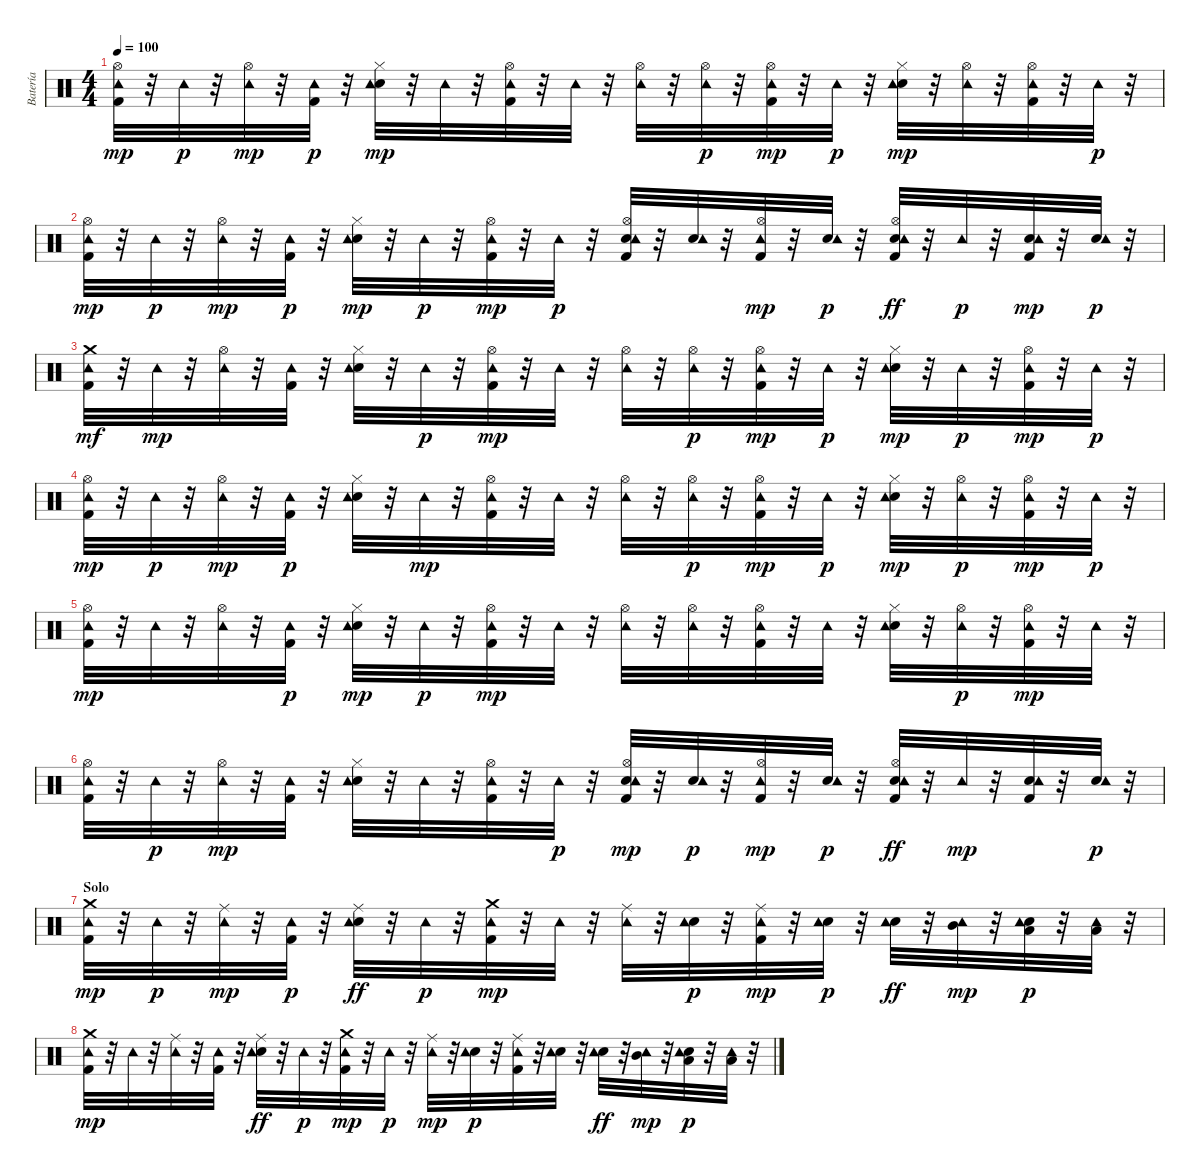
\track ("Batería" "Batería") {instrument percussion}
\staff {score}
\articulation defaults
\ts (4 4)
\tempo 100
\clef neutral
\ks c
("Kick (hit) 2" "Hi-Hat (open)" "Tambourine (hit)").32{dy mp} r.32 "Tambourine (hit)".32{dy p} r.32 ("Hi-Hat (open)" "Tambourine (hit)").32{dy mp} r.32 ("Kick (hit) 2" "Tambourine (hit)").32{dy p} r.32 ("Electric Snare (hit)" "Hi-Hat (closed)" "Tambourine (hit)").32{dy mp} r.32 "Tambourine (hit)".32 r.32 ("Kick (hit) 2" "Hi-Hat (open)" "Tambourine (hit)").32 r.32 "Tambourine (hit)".32 r.32 ("Hi-Hat (open)" "Tambourine (hit)").32 r.32 ("Hi-Hat (open)" "Tambourine (hit)").32{dy p} r.32 ("Kick (hit) 2" "Hi-Hat (open)" "Tambourine (hit)").32{dy mp} r.32 "Tambourine (hit)".32{dy p} r.32 ("Electric Snare (hit)" "Hi-Hat (closed)" "Tambourine (hit)").32{dy mp} r.32 ("Hi-Hat (open)" "Tambourine (hit)").32 r.32 ("Kick (hit) 2" "Hi-Hat (open)" "Tambourine (hit)").32 r.32 "Tambourine (hit)".32{dy p} r.32 |
("Kick (hit) 2" "Hi-Hat (open)" "Tambourine (hit)").32{dy mp} r.32 "Tambourine (hit)".32{dy p} r.32 ("Hi-Hat (open)" "Tambourine (hit)").32{dy mp} r.32 ("Kick (hit) 2" "Tambourine (hit)").32{dy p} r.32 ("Electric Snare (hit)" "Hi-Hat (closed)" "Tambourine (hit)").32{dy mp} r.32 "Tambourine (hit)".32{dy p} r.32 ("Kick (hit) 2" "Hi-Hat (open)" "Tambourine (hit)").32{dy mp} r.32 "Tambourine (hit)".32{dy p} r.32 ("Kick (hit) 2" "Electric Snare (hit)" "Hi-Hat (open)" "Tambourine (hit)").32 r.32 ("Electric Snare (hit)" "Tambourine (hit)").32 r.32 ("Kick (hit) 2" "Hi-Hat (open)" "Tambourine (hit)").32{dy mp} r.32 ("Electric Snare (hit)" "Tambourine (hit)").32{dy p} r.32 ("Kick (hit) 2" "Electric Snare (hit)" "Hi-Hat (open)" "Tambourine (hit)").32{dy ff} r.32 "Tambourine (hit)".32{dy p} r.32 ("Kick (hit) 2" "Electric Snare (hit)" "Tambourine (hit)").32{dy mp} r.32 ("Electric Snare (hit)" "Tambourine (hit)").32{dy p} r.32 |
("Kick (hit) 2" "Tambourine (hit)" "Crash medium (hit)").32{dy mf} r.32 "Tambourine (hit)".32{dy mp} r.32 ("Hi-Hat (open)" "Tambourine (hit)").32 r.32 ("Kick (hit) 2" "Tambourine (hit)").32 r.32 ("Electric Snare (hit)" "Hi-Hat (closed)" "Tambourine (hit)").32 r.32 "Tambourine (hit)".32{dy p} r.32 ("Kick (hit) 2" "Hi-Hat (open)" "Tambourine (hit)").32{dy mp} r.32 "Tambourine (hit)".32 r.32 ("Hi-Hat (open)" "Tambourine (hit)").32 r.32 ("Hi-Hat (open)" "Tambourine (hit)").32{dy p} r.32 ("Kick (hit) 2" "Hi-Hat (open)" "Tambourine (hit)").32{dy mp} r.32 "Tambourine (hit)".32{dy p} r.32 ("Electric Snare (hit)" "Hi-Hat (closed)" "Tambourine (hit)").32{dy mp} r.32 "Tambourine (hit)".32{dy p} r.32 ("Kick (hit) 2" "Hi-Hat (open)" "Tambourine (hit)").32{dy mp} r.32 "Tambourine (hit)".32{dy p} r.32 |
("Kick (hit) 2" "Hi-Hat (open)" "Tambourine (hit)").32{dy mp} r.32 "Tambourine (hit)".32{dy p} r.32 ("Hi-Hat (open)" "Tambourine (hit)").32{dy mp} r.32 ("Kick (hit) 2" "Tambourine (hit)").32{dy p} r.32 ("Electric Snare (hit)" "Hi-Hat (closed)" "Tambourine (hit)").32 r.32 "Tambourine (hit)".32{dy mp} r.32 ("Kick (hit) 2" "Hi-Hat (open)" "Tambourine (hit)").32 r.32 "Tambourine (hit)".32 r.32 ("Hi-Hat (open)" "Tambourine (hit)").32 r.32 ("Hi-Hat (open)" "Tambourine (hit)").32{dy p} r.32 ("Kick (hit) 2" "Hi-Hat (open)" "Tambourine (hit)").32{dy mp} r.32 "Tambourine (hit)".32{dy p} r.32 ("Electric Snare (hit)" "Hi-Hat (closed)" "Tambourine (hit)").32{dy mp} r.32 ("Hi-Hat (open)" "Tambourine (hit)").32{dy p} r.32 ("Kick (hit) 2" "Hi-Hat (open)" "Tambourine (hit)").32{dy mp} r.32 "Tambourine (hit)".32{dy p} r.32 |
("Kick (hit) 2" "Hi-Hat (open)" "Tambourine (hit)").32{dy mp} r.32 "Tambourine (hit)".32 r.32 ("Hi-Hat (open)" "Tambourine (hit)").32 r.32 ("Kick (hit) 2" "Tambourine (hit)").32{dy p} r.32 ("Electric Snare (hit)" "Hi-Hat (closed)" "Tambourine (hit)").32{dy mp} r.32 "Tambourine (hit)".32{dy p} r.32 ("Kick (hit) 2" "Hi-Hat (open)" "Tambourine (hit)").32{dy mp} r.32 "Tambourine (hit)".32 r.32 ("Hi-Hat (open)" "Tambourine (hit)").32 r.32 ("Hi-Hat (open)" "Tambourine (hit)").32 r.32 ("Kick (hit) 2" "Hi-Hat (open)" "Tambourine (hit)").32 r.32 "Tambourine (hit)".32 r.32 ("Electric Snare (hit)" "Hi-Hat (closed)" "Tambourine (hit)").32 r.32 ("Hi-Hat (open)" "Tambourine (hit)").32{dy p} r.32 ("Kick (hit) 2" "Hi-Hat (open)" "Tambourine (hit)").32{dy mp} r.32 "Tambourine (hit)".32 r.32 |
("Kick (hit) 2" "Hi-Hat (open)" "Tambourine (hit)").32 r.32 "Tambourine (hit)".32{dy p} r.32 ("Hi-Hat (open)" "Tambourine (hit)").32{dy mp} r.32 ("Kick (hit) 2" "Tambourine (hit)").32 r.32 ("Electric Snare (hit)" "Hi-Hat (closed)" "Tambourine (hit)").32 r.32 "Tambourine (hit)".32 r.32 ("Kick (hit) 2" "Hi-Hat (open)" "Tambourine (hit)").32 r.32 "Tambourine (hit)".32{dy p} r.32 ("Kick (hit) 2" "Electric Snare (hit)" "Hi-Hat (open)" "Tambourine (hit)").32{dy mp} r.32 ("Electric Snare (hit)" "Tambourine (hit)").32{dy p} r.32 ("Kick (hit) 2" "Hi-Hat (open)" "Tambourine (hit)").32{dy mp} r.32 ("Electric Snare (hit)" "Tambourine (hit)").32{dy p} r.32 ("Kick (hit) 2" "Electric Snare (hit)" "Hi-Hat (open)" "Tambourine (hit)").32{dy ff} r.32 "Tambourine (hit)".32{dy mp} r.32 ("Kick (hit) 2" "Electric Snare (hit)" "Tambourine (hit)").32 r.32 ("Electric Snare (hit)" "Tambourine (hit)").32{dy p} r.32 |
\section ("" "Solo")
("Kick (hit) 2" "Tambourine (hit)" "Crash medium (hit)").32{dy mp} r.32 "Tambourine (hit)".32{dy p} r.32 ("Ride (middle)" "Tambourine (hit)").32{dy mp} r.32 ("Kick (hit) 2" "Tambourine (hit)").32{dy p} r.32 ("Electric Snare (hit)" "Ride (middle)" "Tambourine (hit)").32{dy ff} r.32 "Tambourine (hit)".32{dy p} r.32 ("Kick (hit) 2" "Tambourine (hit)" "Crash medium (hit)").32{dy mp} r.32 "Tambourine (hit)".32 r.32 ("Ride (middle)" "Tambourine (hit)").32 r.32 ("Electric Snare (hit)" "Tambourine (hit)").32{dy p} r.32 ("Kick (hit) 2" "Ride (middle)" "Tambourine (hit)").32{dy mp} r.32 ("Electric Snare (hit)" "Tambourine (hit)").32{dy p} r.32 ("Electric Snare (hit)" "Tambourine (hit)").32{dy ff} r.32 ("Mid Tom (hit)" "Tambourine (hit)").32{dy mp} r.32 ("Electric Snare (hit)" "Low Tom (hit)" "Tambourine (hit)").32{dy p} r.32 ("Low Tom (hit)" "Tambourine (hit)").32 r.32 |
("Kick (hit) 2" "Tambourine (hit)" "Crash medium (hit)").32{dy mp} r.32 "Tambourine (hit)".32 r.32 ("Ride (middle)" "Tambourine (hit)").32 r.32 ("Kick (hit) 2" "Tambourine (hit)").32 r.32 ("Electric Snare (hit)" "Ride (middle)" "Tambourine (hit)").32{dy ff} r.32 "Tambourine (hit)".32{dy p} r.32 ("Kick (hit) 2" "Tambourine (hit)" "Crash medium (hit)").32{dy mp} r.32 "Tambourine (hit)".32{dy p} r.32 ("Ride (middle)" "Tambourine (hit)").32{dy mp} r.32 ("Electric Snare (hit)" "Tambourine (hit)").32{dy p} r.32 ("Kick (hit) 2" "Ride (middle)" "Tambourine (hit)").32 r.32 ("Electric Snare (hit)" "Tambourine (hit)").32 r.32 ("Electric Snare (hit)" "Tambourine (hit)").32{dy ff} r.32 ("Mid Tom (hit)" "Tambourine (hit)").32{dy mp} r.32 ("Electric Snare (hit)" "Low Tom (hit)" "Tambourine (hit)").32{dy p} r.32 ("Low Tom (hit)" "Tambourine (hit)").32 r.32
